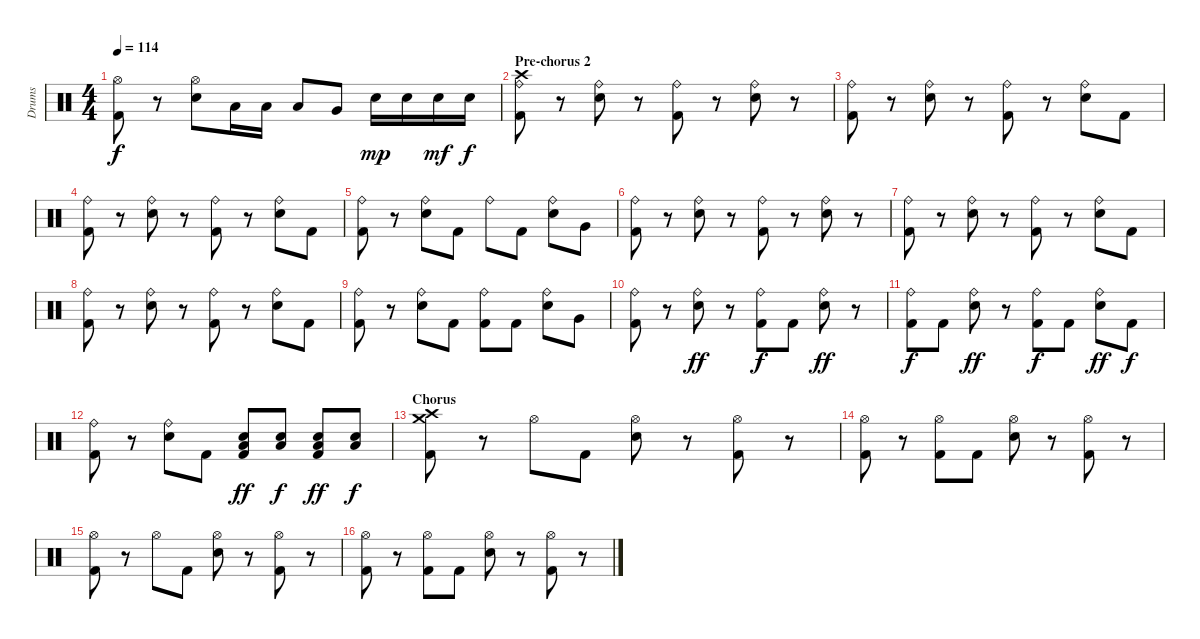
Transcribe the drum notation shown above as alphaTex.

\track ("Drums" "Drums") {instrument percussion}
\staff {score}
\articulation defaults
\ts (4 4)
\tempo 114
\clef neutral
\ks c
("Kick (hit) 2" "Hi-Hat (open)").8{dy f} r.8 ("Electric Snare (hit)" "Hi-Hat (open)").8 "Low Tom (hit)".16 "Low Tom (hit)".16 "Low Tom (hit)".8 "Very Low Tom (hit)".8 "Electric Snare (hit)".16{dy mp} "Electric Snare (hit)".16 "Electric Snare (hit)".16{dy mf} "Electric Snare (hit)".16{dy f} |
\section ("" "Pre-chorus 2")
("Kick (hit) 2" "Ride (bell)" "Crash high (hit)").8 r.8 ("Electric Snare (hit)" "Ride (bell)").8 r.8 ("Kick (hit) 2" "Ride (bell)").8 r.8 ("Electric Snare (hit)" "Ride (bell)").8 r.8 |
("Kick (hit) 2" "Ride (bell)").8 r.8 ("Electric Snare (hit)" "Ride (bell)").8 r.8 ("Kick (hit) 2" "Ride (bell)").8 r.8 ("Electric Snare (hit)" "Ride (bell)").8 "Kick (hit) 2".8 |
("Kick (hit) 2" "Ride (bell)").8 r.8 ("Electric Snare (hit)" "Ride (bell)").8 r.8 ("Kick (hit) 2" "Ride (bell)").8 r.8 ("Electric Snare (hit)" "Ride (bell)").8 "Kick (hit) 2".8 |
("Kick (hit) 2" "Ride (bell)").8 r.8 ("Electric Snare (hit)" "Ride (bell)").8 "Kick (hit) 2".8 "Ride (bell)".8 "Kick (hit) 2".8 ("Electric Snare (hit)" "Ride (bell)").8 "Very Low Tom (hit)".8 |
("Kick (hit) 2" "Ride (bell)").8 r.8 ("Electric Snare (hit)" "Ride (bell)").8 r.8 ("Kick (hit) 2" "Ride (bell)").8 r.8 ("Electric Snare (hit)" "Ride (bell)").8 r.8 |
("Kick (hit) 2" "Ride (bell)").8 r.8 ("Electric Snare (hit)" "Ride (bell)").8 r.8 ("Kick (hit) 2" "Ride (bell)").8 r.8 ("Electric Snare (hit)" "Ride (bell)").8 "Kick (hit) 2".8 |
("Kick (hit) 2" "Ride (bell)").8 r.8 ("Electric Snare (hit)" "Ride (bell)").8 r.8 ("Kick (hit) 2" "Ride (bell)").8 r.8 ("Electric Snare (hit)" "Ride (bell)").8 "Kick (hit) 2".8 |
("Kick (hit) 2" "Ride (bell)").8 r.8 ("Electric Snare (hit)" "Ride (bell)").8 "Kick (hit) 2".8 ("Kick (hit) 2" "Ride (bell)").8 "Kick (hit) 2".8 ("Electric Snare (hit)" "Ride (bell)").8 "Very Low Tom (hit)".8 |
("Kick (hit) 2" "Ride (bell)").8 r.8 ("Electric Snare (hit)" "Ride (bell)").8{dy ff} r.8 ("Kick (hit) 2" "Ride (bell)").8{dy f} "Kick (hit) 2".8 ("Electric Snare (hit)" "Ride (bell)").8{dy ff} r.8 |
("Kick (hit) 2" "Ride (bell)").8{dy f} "Kick (hit) 2".8 ("Electric Snare (hit)" "Ride (bell)").8{dy ff} r.8 ("Kick (hit) 2" "Ride (bell)").8{dy f} "Kick (hit) 2".8 ("Electric Snare (hit)" "Ride (bell)").8{dy ff} "Kick (hit) 2".8{dy f} |
("Kick (hit) 2" "Ride (bell)").8 r.8 ("Electric Snare (hit)" "Ride (bell)").8 "Kick (hit) 2".8 ("Kick (hit) 2" "Low Tom (hit)" "Electric Snare (hit)").8{dy ff} ("Low Floor Tom (hit)" "Electric Snare (hit)").8{dy f} ("Kick (hit) 2" "Low Tom (hit)" "Electric Snare (hit)").8{dy ff} ("Low Floor Tom (hit)" "Electric Snare (hit)").8{dy f} |
\section ("" "Chorus")
("Kick (hit) 2" "Crash medium (hit)" "Crash high (hit)").8 r.8 "Hi-Hat (open)".8 "Kick (hit) 2".8 ("Electric Snare (hit)" "Hi-Hat (open)").8 r.8 ("Kick (hit) 2" "Hi-Hat (open)").8 r.8 |
("Kick (hit) 2" "Hi-Hat (open)").8 r.8 ("Kick (hit) 2" "Hi-Hat (open)").8 "Kick (hit) 2".8 ("Electric Snare (hit)" "Hi-Hat (open)").8 r.8 ("Kick (hit) 2" "Hi-Hat (open)").8 r.8 |
("Kick (hit) 2" "Hi-Hat (open)").8 r.8 "Hi-Hat (open)".8 "Kick (hit) 2".8 ("Electric Snare (hit)" "Hi-Hat (open)").8 r.8 ("Kick (hit) 2" "Hi-Hat (open)").8 r.8 |
("Kick (hit) 2" "Hi-Hat (open)").8 r.8 ("Kick (hit) 2" "Hi-Hat (open)").8 "Kick (hit) 2".8 ("Electric Snare (hit)" "Hi-Hat (open)").8 r.8 ("Kick (hit) 2" "Hi-Hat (open)").8 r.8
